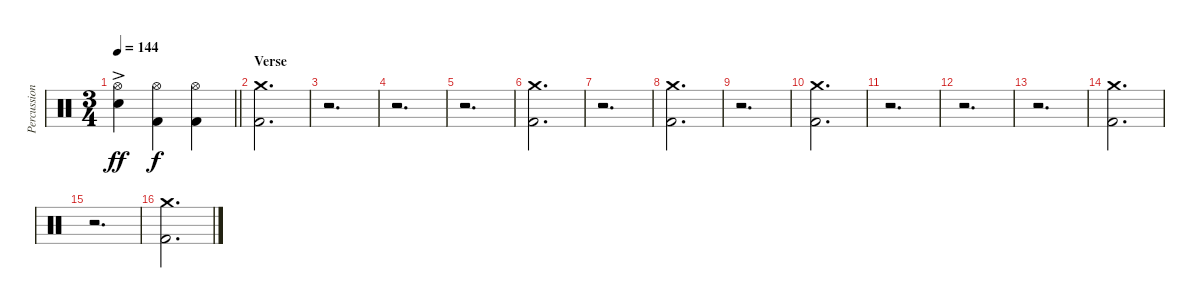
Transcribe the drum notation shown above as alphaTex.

\track ("Percussion" "Percussion") {instrument percussion}
\staff {score}
\articulation defaults
\ts (3 4)
\tempo 144
\clef neutral
\barLineRight lightlight
\ks c
("Hi-Hat (open)" "Electric Snare (hit)"{ac}).4{dy ff} ("Hi-Hat (open)" "Kick (hit) 2").4{dy f} ("Hi-Hat (open)" "Kick (hit) 2").4 |
\section ("" "Verse")
("Crash medium (hit)" "Kick (hit) 2").2{d} |
r.2{d} |
r.2{d} |
r.2{d} |
("Crash medium (hit)" "Kick (hit) 2").2{d} |
r.2{d} |
("Crash medium (hit)" "Kick (hit) 2").2{d} |
r.2{d} |
("Crash medium (hit)" "Kick (hit) 2").2{d} |
r.2{d} |
r.2{d} |
r.2{d} |
("Crash medium (hit)" "Kick (hit) 2").2{d} |
r.2{d} |
("Crash medium (hit)" "Kick (hit) 2").2{d}
